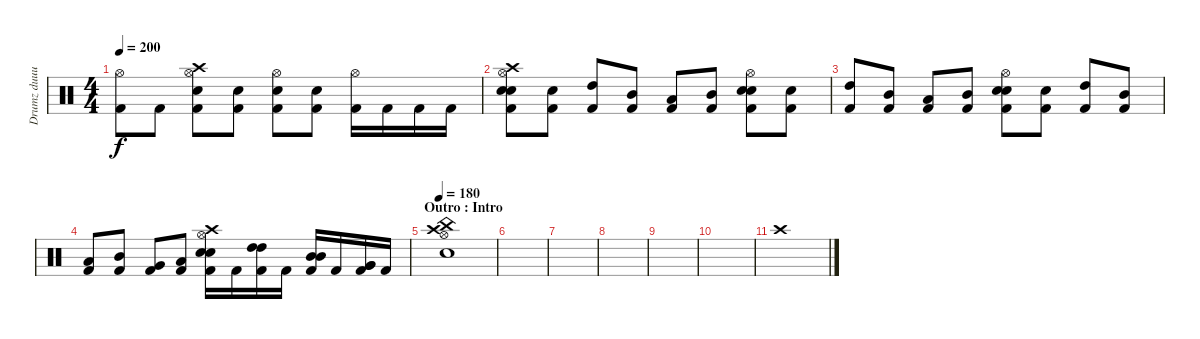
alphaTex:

\track ("Drumz duuuuude" "Drumz duuu") {instrument percussion}
\staff {score}
\articulation defaults
\ts (4 4)
\tempo 200
\clef neutral
\ks c
("Hi-Hat (open)" "Kick (hit) 2").8{dy f} "Kick (hit) 2".8 ("Crash high (hit)" "Hi-Hat (open)" "Kick (hit) 2" "Electric Snare (hit)").8 ("Kick (hit) 2" "Electric Snare (hit)").8 ("Hi-Hat (open)" "Kick (hit) 2" "Electric Snare (hit)").8 ("Kick (hit) 2" "Electric Snare (hit)").8 ("Hi-Hat (open)" "Kick (hit) 2").16 "Kick (hit) 2".16 "Kick (hit) 2".16 "Kick (hit) 2".16 |
("Crash high (hit)" "Hi-Hat (open)" "Kick (hit) 2" "Snare (hit) 2" "Electric Snare (hit)").8 ("Kick (hit) 2" "Electric Snare (hit)").8 ("Kick (hit) 2" "High Tom (hit)").8 ("Kick (hit) 2" "Mid Tom (hit)").8 ("Kick (hit) 2" "Low Tom (hit)").8 ("Kick (hit) 2" "Mid Tom (hit)").8 ("Hi-Hat (open)" "Kick (hit) 2" "Snare (hit) 2" "Electric Snare (hit)").8 ("Kick (hit) 2" "Electric Snare (hit)").8 |
("Kick (hit) 2" "High Tom (hit)").8 ("Kick (hit) 2" "Mid Tom (hit)").8 ("Kick (hit) 2" "Low Tom (hit)").8 ("Kick (hit) 2" "Mid Tom (hit)").8 ("Hi-Hat (open)" "Kick (hit) 2" "Snare (hit) 2" "Electric Snare (hit)").8 ("Kick (hit) 2" "Electric Snare (hit)").8 ("Kick (hit) 2" "High Tom (hit)").8 ("Kick (hit) 2" "Mid Tom (hit)").8 |
("Kick (hit) 2" "Low Tom (hit)").8 ("Kick (hit) 2" "Mid Tom (hit)").8 ("Kick (hit) 2" "Very Low Tom (hit)").8 ("Kick (hit) 2" "Low Floor Tom (hit)").8 ("Crash high (hit)" "Hi-Hat (open)" "Kick (hit) 2" "Snare (hit) 2" "Electric Snare (hit)").16 "Kick (hit) 2".16 ("Kick (hit) 2" "High Tom (hit)" "High Tom (hit)").16 "Kick (hit) 2".16 ("Kick (hit) 2" "Mid Tom (hit)" "Mid Tom (hit)").16 "Kick (hit) 2".16 ("Kick (hit) 2" "Very Low Tom (hit)" "Very Low Tom (hit)").16 "Kick (hit) 2".16 |
\section ("" "Outro : Intro")
\tempo 180
("Crash high (hit)" "China (hit)" "Hi-Hat (open)" "Snare (hit) 2").1 |
|
|
|
|
|
"Crash high (hit)".1
